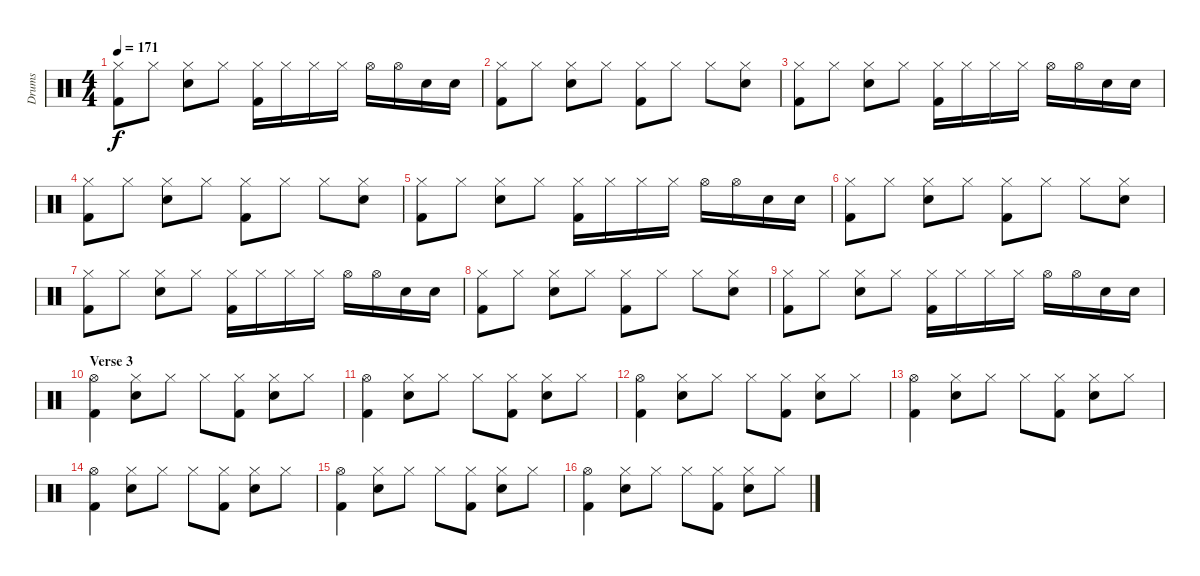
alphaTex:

\track ("Drums" "Drums") {instrument percussion}
\staff {score}
\articulation defaults
\ts (4 4)
\tempo 171
\clef neutral
\ks c
("Hi-Hat (closed)" "Kick (hit) 2").8{dy f} "Hi-Hat (closed)".8 ("Hi-Hat (closed)" "Electric Snare (hit)").8 "Hi-Hat (closed)".8 ("Hi-Hat (closed)" "Kick (hit) 2").16 "Hi-Hat (closed)".16 "Hi-Hat (closed)".16 "Hi-Hat (closed)".16 "Hi-Hat (open)".16 "Hi-Hat (open)".16 "Electric Snare (hit)".16 "Electric Snare (hit)".16 |
("Hi-Hat (closed)" "Kick (hit) 2").8 "Hi-Hat (closed)".8 ("Hi-Hat (closed)" "Electric Snare (hit)").8 "Hi-Hat (closed)".8 ("Hi-Hat (closed)" "Kick (hit) 2").8 "Hi-Hat (closed)".8 "Hi-Hat (closed)".8 ("Hi-Hat (closed)" "Electric Snare (hit)").8 |
("Hi-Hat (closed)" "Kick (hit) 2").8 "Hi-Hat (closed)".8 ("Hi-Hat (closed)" "Electric Snare (hit)").8 "Hi-Hat (closed)".8 ("Hi-Hat (closed)" "Kick (hit) 2").16 "Hi-Hat (closed)".16 "Hi-Hat (closed)".16 "Hi-Hat (closed)".16 "Hi-Hat (open)".16 "Hi-Hat (open)".16 "Electric Snare (hit)".16 "Electric Snare (hit)".16 |
("Hi-Hat (closed)" "Kick (hit) 2").8 "Hi-Hat (closed)".8 ("Hi-Hat (closed)" "Electric Snare (hit)").8 "Hi-Hat (closed)".8 ("Hi-Hat (closed)" "Kick (hit) 2").8 "Hi-Hat (closed)".8 "Hi-Hat (closed)".8 ("Hi-Hat (closed)" "Electric Snare (hit)").8 |
("Hi-Hat (closed)" "Kick (hit) 2").8 "Hi-Hat (closed)".8 ("Hi-Hat (closed)" "Electric Snare (hit)").8 "Hi-Hat (closed)".8 ("Hi-Hat (closed)" "Kick (hit) 2").16 "Hi-Hat (closed)".16 "Hi-Hat (closed)".16 "Hi-Hat (closed)".16 "Hi-Hat (open)".16 "Hi-Hat (open)".16 "Electric Snare (hit)".16 "Electric Snare (hit)".16 |
("Hi-Hat (closed)" "Kick (hit) 2").8 "Hi-Hat (closed)".8 ("Hi-Hat (closed)" "Electric Snare (hit)").8 "Hi-Hat (closed)".8 ("Hi-Hat (closed)" "Kick (hit) 2").8 "Hi-Hat (closed)".8 "Hi-Hat (closed)".8 ("Hi-Hat (closed)" "Electric Snare (hit)").8 |
("Hi-Hat (closed)" "Kick (hit) 2").8 "Hi-Hat (closed)".8 ("Hi-Hat (closed)" "Electric Snare (hit)").8 "Hi-Hat (closed)".8 ("Hi-Hat (closed)" "Kick (hit) 2").16 "Hi-Hat (closed)".16 "Hi-Hat (closed)".16 "Hi-Hat (closed)".16 "Hi-Hat (open)".16 "Hi-Hat (open)".16 "Electric Snare (hit)".16 "Electric Snare (hit)".16 |
("Hi-Hat (closed)" "Kick (hit) 2").8 "Hi-Hat (closed)".8 ("Hi-Hat (closed)" "Electric Snare (hit)").8 "Hi-Hat (closed)".8 ("Hi-Hat (closed)" "Kick (hit) 2").8 "Hi-Hat (closed)".8 "Hi-Hat (closed)".8 ("Hi-Hat (closed)" "Electric Snare (hit)").8 |
("Hi-Hat (closed)" "Kick (hit) 2").8 "Hi-Hat (closed)".8 ("Hi-Hat (closed)" "Electric Snare (hit)").8 "Hi-Hat (closed)".8 ("Hi-Hat (closed)" "Kick (hit) 2").16 "Hi-Hat (closed)".16 "Hi-Hat (closed)".16 "Hi-Hat (closed)".16 "Hi-Hat (open)".16 "Hi-Hat (open)".16 "Electric Snare (hit)".16 "Electric Snare (hit)".16 |
\section ("" "Verse 3")
("Hi-Hat (open)" "Kick (hit) 2").4 ("Hi-Hat (closed)" "Electric Snare (hit)").8 "Hi-Hat (closed)".8 "Hi-Hat (closed)".8 ("Hi-Hat (closed)" "Kick (hit) 2").8 ("Hi-Hat (closed)" "Electric Snare (hit)").8 "Hi-Hat (closed)".8 |
("Hi-Hat (open)" "Kick (hit) 2").4 ("Hi-Hat (closed)" "Electric Snare (hit)").8 "Hi-Hat (closed)".8 "Hi-Hat (closed)".8 ("Hi-Hat (closed)" "Kick (hit) 2").8 ("Hi-Hat (closed)" "Electric Snare (hit)").8 "Hi-Hat (closed)".8 |
("Hi-Hat (open)" "Kick (hit) 2").4 ("Hi-Hat (closed)" "Electric Snare (hit)").8 "Hi-Hat (closed)".8 "Hi-Hat (closed)".8 ("Hi-Hat (closed)" "Kick (hit) 2").8 ("Hi-Hat (closed)" "Electric Snare (hit)").8 "Hi-Hat (closed)".8 |
("Hi-Hat (open)" "Kick (hit) 2").4 ("Hi-Hat (closed)" "Electric Snare (hit)").8 "Hi-Hat (closed)".8 "Hi-Hat (closed)".8 ("Hi-Hat (closed)" "Kick (hit) 2").8 ("Hi-Hat (closed)" "Electric Snare (hit)").8 "Hi-Hat (closed)".8 |
("Hi-Hat (open)" "Kick (hit) 2").4 ("Hi-Hat (closed)" "Electric Snare (hit)").8 "Hi-Hat (closed)".8 "Hi-Hat (closed)".8 ("Hi-Hat (closed)" "Kick (hit) 2").8 ("Hi-Hat (closed)" "Electric Snare (hit)").8 "Hi-Hat (closed)".8 |
("Hi-Hat (open)" "Kick (hit) 2").4 ("Hi-Hat (closed)" "Electric Snare (hit)").8 "Hi-Hat (closed)".8 "Hi-Hat (closed)".8 ("Hi-Hat (closed)" "Kick (hit) 2").8 ("Hi-Hat (closed)" "Electric Snare (hit)").8 "Hi-Hat (closed)".8 |
("Hi-Hat (open)" "Kick (hit) 2").4 ("Hi-Hat (closed)" "Electric Snare (hit)").8 "Hi-Hat (closed)".8 "Hi-Hat (closed)".8 ("Hi-Hat (closed)" "Kick (hit) 2").8 ("Hi-Hat (closed)" "Electric Snare (hit)").8 "Hi-Hat (closed)".8
